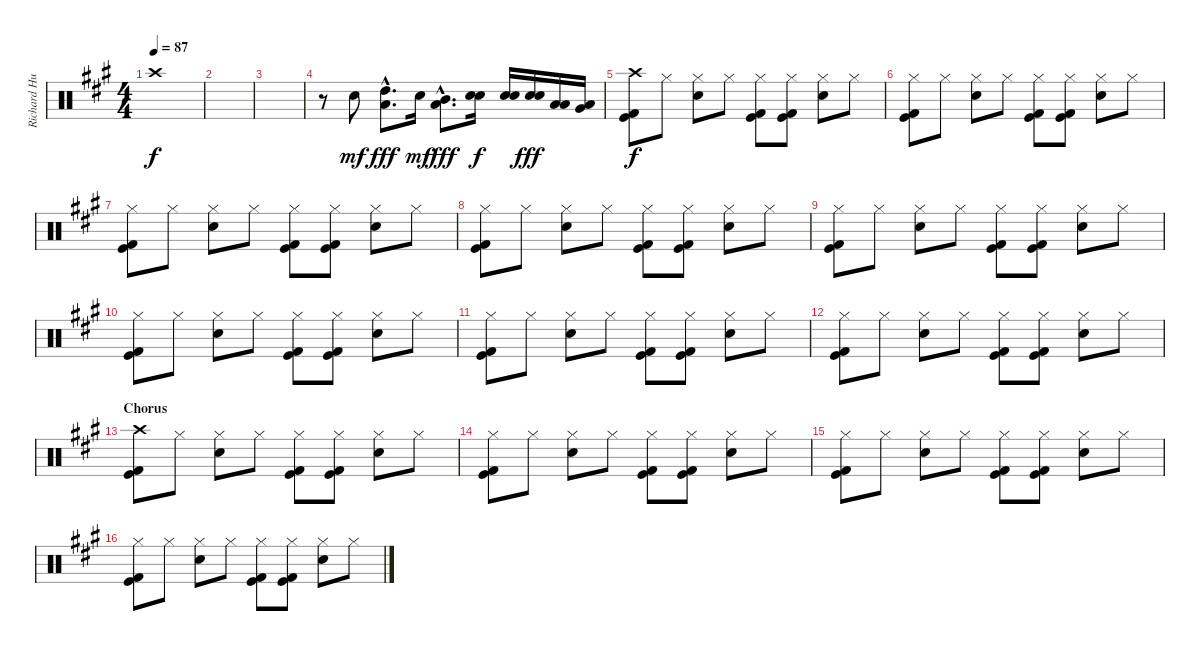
\track ("Richard Hughes (Drums)" "Richard Hu") {instrument percussion}
\staff {score}
\articulation defaults
\ts (4 4)
\tempo 87
\clef neutral
\ks a "Crash high (hit)".1{dy f}
|
|
|
r.8 "Snare (hit) 2".8{dy mf} ("High Tom (hit)"{hac} "Low Floor Tom (hit)"{hac}).8{d dy fff} "Snare (hit) 2".16{dy mf} ("Mid Tom (hit)"{hac} "Low Floor Tom (hit)"{hac}).8{d dy fff} ("Snare (hit) 2" "Electric Snare (hit)").16{dy f} ("Snare (hit) 2" "Electric Snare (hit)").16 ("Snare (hit) 2" "Electric Snare (hit)").16{dy fff} ("Low Tom (hit)" "Low Floor Tom (hit)").16 ("Very Low Tom (hit)" "Low Floor Tom (hit)").16 |
\section ("" "")
("Crash high (hit)" "Kick (hit) 2" "Kick (hit)").8{dy f} "Hi-Hat (closed)".8 ("Hi-Hat (closed)" "Snare (hit) 2").8 "Hi-Hat (closed)".8 ("Hi-Hat (closed)" "Kick (hit) 2" "Kick (hit)").8 ("Hi-Hat (closed)" "Kick (hit) 2" "Kick (hit)").8 ("Hi-Hat (closed)" "Snare (hit) 2").8 "Hi-Hat (closed)".8 |
("Hi-Hat (closed)" "Kick (hit) 2" "Kick (hit)").8 "Hi-Hat (closed)".8 ("Hi-Hat (closed)" "Snare (hit) 2").8 "Hi-Hat (closed)".8 ("Hi-Hat (closed)" "Kick (hit) 2" "Kick (hit)").8 ("Hi-Hat (closed)" "Kick (hit) 2" "Kick (hit)").8 ("Hi-Hat (closed)" "Snare (hit) 2").8 "Hi-Hat (closed)".8 |
("Hi-Hat (closed)" "Kick (hit) 2" "Kick (hit)").8 "Hi-Hat (closed)".8 ("Hi-Hat (closed)" "Snare (hit) 2").8 "Hi-Hat (closed)".8 ("Hi-Hat (closed)" "Kick (hit) 2" "Kick (hit)").8 ("Hi-Hat (closed)" "Kick (hit) 2" "Kick (hit)").8 ("Hi-Hat (closed)" "Snare (hit) 2").8 "Hi-Hat (closed)".8 |
("Hi-Hat (closed)" "Kick (hit) 2" "Kick (hit)").8 "Hi-Hat (closed)".8 ("Hi-Hat (closed)" "Snare (hit) 2").8 "Hi-Hat (closed)".8 ("Hi-Hat (closed)" "Kick (hit) 2" "Kick (hit)").8 ("Hi-Hat (closed)" "Kick (hit) 2" "Kick (hit)").8 ("Hi-Hat (closed)" "Snare (hit) 2").8 "Hi-Hat (closed)".8 |
("Hi-Hat (closed)" "Kick (hit) 2" "Kick (hit)").8 "Hi-Hat (closed)".8 ("Hi-Hat (closed)" "Snare (hit) 2").8 "Hi-Hat (closed)".8 ("Hi-Hat (closed)" "Kick (hit) 2" "Kick (hit)").8 ("Hi-Hat (closed)" "Kick (hit) 2" "Kick (hit)").8 ("Hi-Hat (closed)" "Snare (hit) 2").8 "Hi-Hat (closed)".8 |
("Hi-Hat (closed)" "Kick (hit) 2" "Kick (hit)").8 "Hi-Hat (closed)".8 ("Hi-Hat (closed)" "Snare (hit) 2").8 "Hi-Hat (closed)".8 ("Hi-Hat (closed)" "Kick (hit) 2" "Kick (hit)").8 ("Hi-Hat (closed)" "Kick (hit) 2" "Kick (hit)").8 ("Hi-Hat (closed)" "Snare (hit) 2").8 "Hi-Hat (closed)".8 |
("Hi-Hat (closed)" "Kick (hit) 2" "Kick (hit)").8 "Hi-Hat (closed)".8 ("Hi-Hat (closed)" "Snare (hit) 2").8 "Hi-Hat (closed)".8 ("Hi-Hat (closed)" "Kick (hit) 2" "Kick (hit)").8 ("Hi-Hat (closed)" "Kick (hit) 2" "Kick (hit)").8 ("Hi-Hat (closed)" "Snare (hit) 2").8 "Hi-Hat (closed)".8 |
("Hi-Hat (closed)" "Kick (hit) 2" "Kick (hit)").8 "Hi-Hat (closed)".8 ("Hi-Hat (closed)" "Snare (hit) 2").8 "Hi-Hat (closed)".8 ("Hi-Hat (closed)" "Kick (hit) 2" "Kick (hit)").8 ("Hi-Hat (closed)" "Kick (hit) 2" "Kick (hit)").8 ("Hi-Hat (closed)" "Snare (hit) 2").8 "Hi-Hat (closed)".8 |
\section ("" "Chorus ")
("Crash high (hit)" "Kick (hit) 2" "Kick (hit)").8 "Hi-Hat (closed)".8 ("Hi-Hat (closed)" "Snare (hit) 2").8 "Hi-Hat (closed)".8 ("Hi-Hat (closed)" "Kick (hit) 2" "Kick (hit)").8 ("Hi-Hat (closed)" "Kick (hit) 2" "Kick (hit)").8 ("Hi-Hat (closed)" "Snare (hit) 2").8 "Hi-Hat (closed)".8 |
("Hi-Hat (closed)" "Kick (hit) 2" "Kick (hit)").8 "Hi-Hat (closed)".8 ("Hi-Hat (closed)" "Snare (hit) 2").8 "Hi-Hat (closed)".8 ("Hi-Hat (closed)" "Kick (hit) 2" "Kick (hit)").8 ("Hi-Hat (closed)" "Kick (hit) 2" "Kick (hit)").8 ("Hi-Hat (closed)" "Snare (hit) 2").8 "Hi-Hat (closed)".8 |
("Hi-Hat (closed)" "Kick (hit) 2" "Kick (hit)").8 "Hi-Hat (closed)".8 ("Hi-Hat (closed)" "Snare (hit) 2").8 "Hi-Hat (closed)".8 ("Hi-Hat (closed)" "Kick (hit) 2" "Kick (hit)").8 ("Hi-Hat (closed)" "Kick (hit) 2" "Kick (hit)").8 ("Hi-Hat (closed)" "Snare (hit) 2").8 "Hi-Hat (closed)".8 |
("Hi-Hat (closed)" "Kick (hit) 2" "Kick (hit)").8 "Hi-Hat (closed)".8 ("Hi-Hat (closed)" "Snare (hit) 2").8 "Hi-Hat (closed)".8 ("Hi-Hat (closed)" "Kick (hit) 2" "Kick (hit)").8 ("Hi-Hat (closed)" "Kick (hit) 2" "Kick (hit)").8 ("Hi-Hat (closed)" "Snare (hit) 2").8 "Hi-Hat (closed)".8
